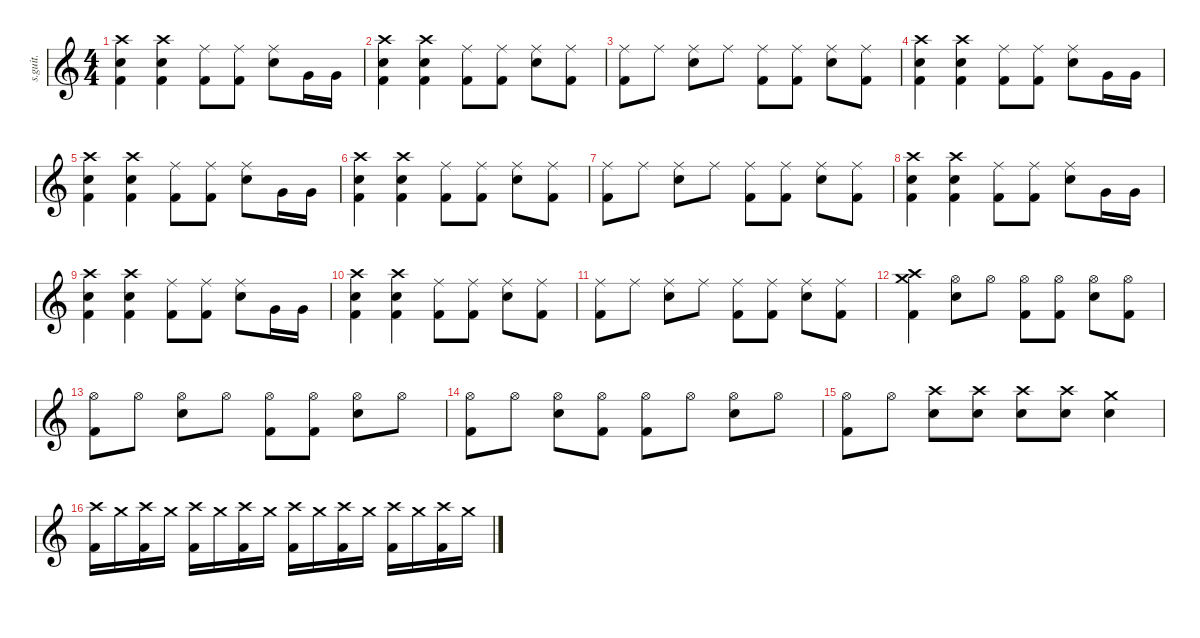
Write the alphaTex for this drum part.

\defaultSystemsLayout 4
\hideDynamics
\bracketExtendMode nobrackets
\track ("Bob Burns (Drums)" "s.guit.") {instrument percussion}
\staff {score}
\articulation defaults
\ts (4 4)
\tempo (150 hide)
\clef g2
\ks c
("Crash high (hit)" "Electric Snare (hit)" "Kick (hit) 2").4{lyrics (0 "") lyrics (1 "") lyrics (2 "") lyrics (3 "") lyrics (4 "") dy f} ("Crash high (hit)" "Electric Snare (hit)" "Kick (hit) 2").4{lyrics (0 "") lyrics (1 "") lyrics (2 "") lyrics (3 "") lyrics (4 "")} ("Ride (middle)" "Kick (hit) 2").8{lyrics (0 "") lyrics (1 "") lyrics (2 "") lyrics (3 "") lyrics (4 "")} ("Ride (middle)" "Kick (hit) 2").8{lyrics (0 "") lyrics (1 "") lyrics (2 "") lyrics (3 "") lyrics (4 "")} ("Ride (middle)" "Electric Snare (hit)").8{lyrics (0 "") lyrics (1 "") lyrics (2 "") lyrics (3 "") lyrics (4 "")} "Very Low Tom (hit)".16{lyrics (0 "") lyrics (1 "") lyrics (2 "") lyrics (3 "") lyrics (4 "")} "Very Low Tom (hit)".16{lyrics (0 "") lyrics (1 "") lyrics (2 "") lyrics (3 "") lyrics (4 "")} |
("Crash high (hit)" "Electric Snare (hit)" "Kick (hit) 2").4{lyrics (0 "") lyrics (1 "") lyrics (2 "") lyrics (3 "") lyrics (4 "")} ("Crash high (hit)" "Electric Snare (hit)" "Kick (hit) 2").4{lyrics (0 "") lyrics (1 "") lyrics (2 "") lyrics (3 "") lyrics (4 "")} ("Ride (middle)" "Kick (hit) 2").8{lyrics (0 "") lyrics (1 "") lyrics (2 "") lyrics (3 "") lyrics (4 "")} ("Ride (middle)" "Kick (hit) 2").8{lyrics (0 "") lyrics (1 "") lyrics (2 "") lyrics (3 "") lyrics (4 "")} ("Ride (middle)" "Electric Snare (hit)").8{lyrics (0 "") lyrics (1 "") lyrics (2 "") lyrics (3 "") lyrics (4 "")} ("Ride (middle)" "Kick (hit) 2").8{lyrics (0 "") lyrics (1 "") lyrics (2 "") lyrics (3 "") lyrics (4 "")} |
("Ride (middle)" "Kick (hit) 2").8{lyrics (0 "") lyrics (1 "") lyrics (2 "") lyrics (3 "") lyrics (4 "")} "Ride (middle)".8{lyrics (0 "") lyrics (1 "") lyrics (2 "") lyrics (3 "") lyrics (4 "")} ("Ride (middle)" "Electric Snare (hit)").8{lyrics (0 "") lyrics (1 "") lyrics (2 "") lyrics (3 "") lyrics (4 "")} "Ride (middle)".8{lyrics (0 "") lyrics (1 "") lyrics (2 "") lyrics (3 "") lyrics (4 "")} ("Ride (middle)" "Kick (hit) 2").8{lyrics (0 "") lyrics (1 "") lyrics (2 "") lyrics (3 "") lyrics (4 "")} ("Ride (middle)" "Kick (hit) 2").8{lyrics (0 "") lyrics (1 "") lyrics (2 "") lyrics (3 "") lyrics (4 "")} ("Ride (middle)" "Electric Snare (hit)").8{lyrics (0 "") lyrics (1 "") lyrics (2 "") lyrics (3 "") lyrics (4 "")} ("Ride (middle)" "Kick (hit) 2").8{lyrics (0 "") lyrics (1 "") lyrics (2 "") lyrics (3 "") lyrics (4 "")} |
("Crash high (hit)" "Electric Snare (hit)" "Kick (hit) 2").4{lyrics (0 "") lyrics (1 "") lyrics (2 "") lyrics (3 "") lyrics (4 "")} ("Crash high (hit)" "Electric Snare (hit)" "Kick (hit) 2").4{lyrics (0 "") lyrics (1 "") lyrics (2 "") lyrics (3 "") lyrics (4 "")} ("Ride (middle)" "Kick (hit) 2").8{lyrics (0 "") lyrics (1 "") lyrics (2 "") lyrics (3 "") lyrics (4 "")} ("Ride (middle)" "Kick (hit) 2").8{lyrics (0 "") lyrics (1 "") lyrics (2 "") lyrics (3 "") lyrics (4 "")} ("Ride (middle)" "Electric Snare (hit)").8{lyrics (0 "") lyrics (1 "") lyrics (2 "") lyrics (3 "") lyrics (4 "")} "Very Low Tom (hit)".16{lyrics (0 "") lyrics (1 "") lyrics (2 "") lyrics (3 "") lyrics (4 "")} "Very Low Tom (hit)".16{lyrics (0 "") lyrics (1 "") lyrics (2 "") lyrics (3 "") lyrics (4 "")} |
("Crash high (hit)" "Electric Snare (hit)" "Kick (hit) 2").4{lyrics (0 "") lyrics (1 "") lyrics (2 "") lyrics (3 "") lyrics (4 "")} ("Crash high (hit)" "Electric Snare (hit)" "Kick (hit) 2").4{lyrics (0 "") lyrics (1 "") lyrics (2 "") lyrics (3 "") lyrics (4 "")} ("Ride (middle)" "Kick (hit) 2").8{lyrics (0 "") lyrics (1 "") lyrics (2 "") lyrics (3 "") lyrics (4 "")} ("Ride (middle)" "Kick (hit) 2").8{lyrics (0 "") lyrics (1 "") lyrics (2 "") lyrics (3 "") lyrics (4 "")} ("Ride (middle)" "Electric Snare (hit)").8{lyrics (0 "") lyrics (1 "") lyrics (2 "") lyrics (3 "") lyrics (4 "")} "Very Low Tom (hit)".16{lyrics (0 "") lyrics (1 "") lyrics (2 "") lyrics (3 "") lyrics (4 "")} "Very Low Tom (hit)".16{lyrics (0 "") lyrics (1 "") lyrics (2 "") lyrics (3 "") lyrics (4 "")} |
("Crash high (hit)" "Electric Snare (hit)" "Kick (hit) 2").4{lyrics (0 "") lyrics (1 "") lyrics (2 "") lyrics (3 "") lyrics (4 "")} ("Crash high (hit)" "Electric Snare (hit)" "Kick (hit) 2").4{lyrics (0 "") lyrics (1 "") lyrics (2 "") lyrics (3 "") lyrics (4 "")} ("Ride (middle)" "Kick (hit) 2").8{lyrics (0 "") lyrics (1 "") lyrics (2 "") lyrics (3 "") lyrics (4 "")} ("Ride (middle)" "Kick (hit) 2").8{lyrics (0 "") lyrics (1 "") lyrics (2 "") lyrics (3 "") lyrics (4 "")} ("Ride (middle)" "Electric Snare (hit)").8{lyrics (0 "") lyrics (1 "") lyrics (2 "") lyrics (3 "") lyrics (4 "")} ("Ride (middle)" "Kick (hit) 2").8{lyrics (0 "") lyrics (1 "") lyrics (2 "") lyrics (3 "") lyrics (4 "")} |
("Ride (middle)" "Kick (hit) 2").8{lyrics (0 "") lyrics (1 "") lyrics (2 "") lyrics (3 "") lyrics (4 "")} "Ride (middle)".8{lyrics (0 "") lyrics (1 "") lyrics (2 "") lyrics (3 "") lyrics (4 "")} ("Ride (middle)" "Electric Snare (hit)").8{lyrics (0 "") lyrics (1 "") lyrics (2 "") lyrics (3 "") lyrics (4 "")} "Ride (middle)".8{lyrics (0 "") lyrics (1 "") lyrics (2 "") lyrics (3 "") lyrics (4 "")} ("Ride (middle)" "Kick (hit) 2").8{lyrics (0 "") lyrics (1 "") lyrics (2 "") lyrics (3 "") lyrics (4 "")} ("Ride (middle)" "Kick (hit) 2").8{lyrics (0 "") lyrics (1 "") lyrics (2 "") lyrics (3 "") lyrics (4 "")} ("Ride (middle)" "Electric Snare (hit)").8{lyrics (0 "") lyrics (1 "") lyrics (2 "") lyrics (3 "") lyrics (4 "")} ("Ride (middle)" "Kick (hit) 2").8{lyrics (0 "") lyrics (1 "") lyrics (2 "") lyrics (3 "") lyrics (4 "")} |
("Crash high (hit)" "Electric Snare (hit)" "Kick (hit) 2").4{lyrics (0 "") lyrics (1 "") lyrics (2 "") lyrics (3 "") lyrics (4 "")} ("Crash high (hit)" "Electric Snare (hit)" "Kick (hit) 2").4{lyrics (0 "") lyrics (1 "") lyrics (2 "") lyrics (3 "") lyrics (4 "")} ("Ride (middle)" "Kick (hit) 2").8{lyrics (0 "") lyrics (1 "") lyrics (2 "") lyrics (3 "") lyrics (4 "")} ("Ride (middle)" "Kick (hit) 2").8{lyrics (0 "") lyrics (1 "") lyrics (2 "") lyrics (3 "") lyrics (4 "")} ("Ride (middle)" "Electric Snare (hit)").8{lyrics (0 "") lyrics (1 "") lyrics (2 "") lyrics (3 "") lyrics (4 "")} "Very Low Tom (hit)".16{lyrics (0 "") lyrics (1 "") lyrics (2 "") lyrics (3 "") lyrics (4 "")} "Very Low Tom (hit)".16{lyrics (0 "") lyrics (1 "") lyrics (2 "") lyrics (3 "") lyrics (4 "")} |
("Crash high (hit)" "Electric Snare (hit)" "Kick (hit) 2").4{lyrics (0 "") lyrics (1 "") lyrics (2 "") lyrics (3 "") lyrics (4 "")} ("Crash high (hit)" "Electric Snare (hit)" "Kick (hit) 2").4{lyrics (0 "") lyrics (1 "") lyrics (2 "") lyrics (3 "") lyrics (4 "")} ("Ride (middle)" "Kick (hit) 2").8{lyrics (0 "") lyrics (1 "") lyrics (2 "") lyrics (3 "") lyrics (4 "")} ("Ride (middle)" "Kick (hit) 2").8{lyrics (0 "") lyrics (1 "") lyrics (2 "") lyrics (3 "") lyrics (4 "")} ("Ride (middle)" "Electric Snare (hit)").8{lyrics (0 "") lyrics (1 "") lyrics (2 "") lyrics (3 "") lyrics (4 "")} "Very Low Tom (hit)".16{lyrics (0 "") lyrics (1 "") lyrics (2 "") lyrics (3 "") lyrics (4 "")} "Very Low Tom (hit)".16{lyrics (0 "") lyrics (1 "") lyrics (2 "") lyrics (3 "") lyrics (4 "")} |
("Crash high (hit)" "Electric Snare (hit)" "Kick (hit) 2").4{lyrics (0 "") lyrics (1 "") lyrics (2 "") lyrics (3 "") lyrics (4 "")} ("Crash high (hit)" "Electric Snare (hit)" "Kick (hit) 2").4{lyrics (0 "") lyrics (1 "") lyrics (2 "") lyrics (3 "") lyrics (4 "")} ("Ride (middle)" "Kick (hit) 2").8{lyrics (0 "") lyrics (1 "") lyrics (2 "") lyrics (3 "") lyrics (4 "")} ("Ride (middle)" "Kick (hit) 2").8{lyrics (0 "") lyrics (1 "") lyrics (2 "") lyrics (3 "") lyrics (4 "")} ("Ride (middle)" "Electric Snare (hit)").8{lyrics (0 "") lyrics (1 "") lyrics (2 "") lyrics (3 "") lyrics (4 "")} ("Ride (middle)" "Kick (hit) 2").8{lyrics (0 "") lyrics (1 "") lyrics (2 "") lyrics (3 "") lyrics (4 "")} |
("Ride (middle)" "Kick (hit) 2").8{lyrics (0 "") lyrics (1 "") lyrics (2 "") lyrics (3 "") lyrics (4 "")} "Ride (middle)".8{lyrics (0 "") lyrics (1 "") lyrics (2 "") lyrics (3 "") lyrics (4 "")} ("Ride (middle)" "Electric Snare (hit)").8{lyrics (0 "") lyrics (1 "") lyrics (2 "") lyrics (3 "") lyrics (4 "")} "Ride (middle)".8{lyrics (0 "") lyrics (1 "") lyrics (2 "") lyrics (3 "") lyrics (4 "")} ("Ride (middle)" "Kick (hit) 2").8{lyrics (0 "") lyrics (1 "") lyrics (2 "") lyrics (3 "") lyrics (4 "")} ("Ride (middle)" "Kick (hit) 2").8{lyrics (0 "") lyrics (1 "") lyrics (2 "") lyrics (3 "") lyrics (4 "")} ("Ride (middle)" "Electric Snare (hit)").8{lyrics (0 "") lyrics (1 "") lyrics (2 "") lyrics (3 "") lyrics (4 "")} ("Ride (middle)" "Kick (hit) 2").8{lyrics (0 "") lyrics (1 "") lyrics (2 "") lyrics (3 "") lyrics (4 "")} |
("Crash high (hit)" "Crash medium (hit)" "Kick (hit) 2").4{lyrics (0 "") lyrics (1 "") lyrics (2 "") lyrics (3 "") lyrics (4 "")} ("Hi-Hat (open)" "Electric Snare (hit)").8{lyrics (0 "") lyrics (1 "") lyrics (2 "") lyrics (3 "") lyrics (4 "")} "Hi-Hat (open)".8{lyrics (0 "") lyrics (1 "") lyrics (2 "") lyrics (3 "") lyrics (4 "")} ("Hi-Hat (open)" "Kick (hit) 2").8{lyrics (0 "") lyrics (1 "") lyrics (2 "") lyrics (3 "") lyrics (4 "")} ("Hi-Hat (open)" "Kick (hit) 2").8{lyrics (0 "") lyrics (1 "") lyrics (2 "") lyrics (3 "") lyrics (4 "")} ("Hi-Hat (open)" "Electric Snare (hit)").8{lyrics (0 "") lyrics (1 "") lyrics (2 "") lyrics (3 "") lyrics (4 "")} ("Hi-Hat (open)" "Kick (hit) 2").8{lyrics (0 "") lyrics (1 "") lyrics (2 "") lyrics (3 "") lyrics (4 "")} |
("Hi-Hat (open)" "Kick (hit) 2").8{lyrics (0 "") lyrics (1 "") lyrics (2 "") lyrics (3 "") lyrics (4 "")} "Hi-Hat (open)".8{lyrics (0 "") lyrics (1 "") lyrics (2 "") lyrics (3 "") lyrics (4 "")} ("Hi-Hat (open)" "Electric Snare (hit)").8{lyrics (0 "") lyrics (1 "") lyrics (2 "") lyrics (3 "") lyrics (4 "")} "Hi-Hat (open)".8{lyrics (0 "") lyrics (1 "") lyrics (2 "") lyrics (3 "") lyrics (4 "")} ("Hi-Hat (open)" "Kick (hit) 2").8{lyrics (0 "") lyrics (1 "") lyrics (2 "") lyrics (3 "") lyrics (4 "")} ("Hi-Hat (open)" "Kick (hit) 2").8{lyrics (0 "") lyrics (1 "") lyrics (2 "") lyrics (3 "") lyrics (4 "")} ("Hi-Hat (open)" "Electric Snare (hit)").8{lyrics (0 "") lyrics (1 "") lyrics (2 "") lyrics (3 "") lyrics (4 "")} "Hi-Hat (open)".8{lyrics (0 "") lyrics (1 "") lyrics (2 "") lyrics (3 "") lyrics (4 "")} |
("Hi-Hat (open)" "Kick (hit) 2").8{lyrics (0 "") lyrics (1 "") lyrics (2 "") lyrics (3 "") lyrics (4 "")} "Hi-Hat (open)".8{lyrics (0 "") lyrics (1 "") lyrics (2 "") lyrics (3 "") lyrics (4 "")} ("Hi-Hat (open)" "Electric Snare (hit)").8{lyrics (0 "") lyrics (1 "") lyrics (2 "") lyrics (3 "") lyrics (4 "")} ("Hi-Hat (open)" "Kick (hit) 2").8{lyrics (0 "") lyrics (1 "") lyrics (2 "") lyrics (3 "") lyrics (4 "")} ("Hi-Hat (open)" "Kick (hit) 2").8{lyrics (0 "") lyrics (1 "") lyrics (2 "") lyrics (3 "") lyrics (4 "")} "Hi-Hat (open)".8{lyrics (0 "") lyrics (1 "") lyrics (2 "") lyrics (3 "") lyrics (4 "")} ("Hi-Hat (open)" "Electric Snare (hit)").8{lyrics (0 "") lyrics (1 "") lyrics (2 "") lyrics (3 "") lyrics (4 "")} "Hi-Hat (open)".8{lyrics (0 "") lyrics (1 "") lyrics (2 "") lyrics (3 "") lyrics (4 "")} |
("Hi-Hat (open)" "Kick (hit) 2").8{lyrics (0 "") lyrics (1 "") lyrics (2 "") lyrics (3 "") lyrics (4 "")} "Hi-Hat (open)".8{lyrics (0 "") lyrics (1 "") lyrics (2 "") lyrics (3 "") lyrics (4 "")} ("Crash high (hit)" "Electric Snare (hit)").8{lyrics (0 "") lyrics (1 "") lyrics (2 "") lyrics (3 "") lyrics (4 "")} ("Crash high (hit)" "Electric Snare (hit)").8{lyrics (0 "") lyrics (1 "") lyrics (2 "") lyrics (3 "") lyrics (4 "")} ("Crash high (hit)" "Electric Snare (hit)").8{lyrics (0 "") lyrics (1 "") lyrics (2 "") lyrics (3 "") lyrics (4 "")} ("Crash high (hit)" "Electric Snare (hit)").8{lyrics (0 "") lyrics (1 "") lyrics (2 "") lyrics (3 "") lyrics (4 "")} ("Crash medium (hit)" "Electric Snare (hit)").4{lyrics (0 "") lyrics (1 "") lyrics (2 "") lyrics (3 "") lyrics (4 "")} |
\tempo (120 hide)
("Crash high (hit)" "Kick (hit) 2").16{lyrics (0 "") lyrics (1 "") lyrics (2 "") lyrics (3 "") lyrics (4 "")} "Crash medium (hit)".16{lyrics (0 "") lyrics (1 "") lyrics (2 "") lyrics (3 "") lyrics (4 "")} ("Crash high (hit)" "Kick (hit) 2").16{lyrics (0 "") lyrics (1 "") lyrics (2 "") lyrics (3 "") lyrics (4 "")} "Crash medium (hit)".16{lyrics (0 "") lyrics (1 "") lyrics (2 "") lyrics (3 "") lyrics (4 "")} ("Crash high (hit)" "Kick (hit) 2").16{lyrics (0 "") lyrics (1 "") lyrics (2 "") lyrics (3 "") lyrics (4 "")} "Crash medium (hit)".16{lyrics (0 "") lyrics (1 "") lyrics (2 "") lyrics (3 "") lyrics (4 "")} ("Crash high (hit)" "Kick (hit) 2").16{lyrics (0 "") lyrics (1 "") lyrics (2 "") lyrics (3 "") lyrics (4 "")} "Crash medium (hit)".16{lyrics (0 "") lyrics (1 "") lyrics (2 "") lyrics (3 "") lyrics (4 "")} ("Crash high (hit)" "Kick (hit) 2").16{lyrics (0 "") lyrics (1 "") lyrics (2 "") lyrics (3 "") lyrics (4 "")} "Crash medium (hit)".16{lyrics (0 "") lyrics (1 "") lyrics (2 "") lyrics (3 "") lyrics (4 "")} ("Crash high (hit)" "Kick (hit) 2").16{lyrics (0 "") lyrics (1 "") lyrics (2 "") lyrics (3 "") lyrics (4 "")} "Crash medium (hit)".16{lyrics (0 "") lyrics (1 "") lyrics (2 "") lyrics (3 "") lyrics (4 "")} ("Crash high (hit)" "Kick (hit) 2").16{lyrics (0 "") lyrics (1 "") lyrics (2 "") lyrics (3 "") lyrics (4 "")} "Crash medium (hit)".16{lyrics (0 "") lyrics (1 "") lyrics (2 "") lyrics (3 "") lyrics (4 "")} ("Crash high (hit)" "Kick (hit) 2").16{lyrics (0 "") lyrics (1 "") lyrics (2 "") lyrics (3 "") lyrics (4 "")} "Crash medium (hit)".16{lyrics (0 "") lyrics (1 "") lyrics (2 "") lyrics (3 "") lyrics (4 "")}
